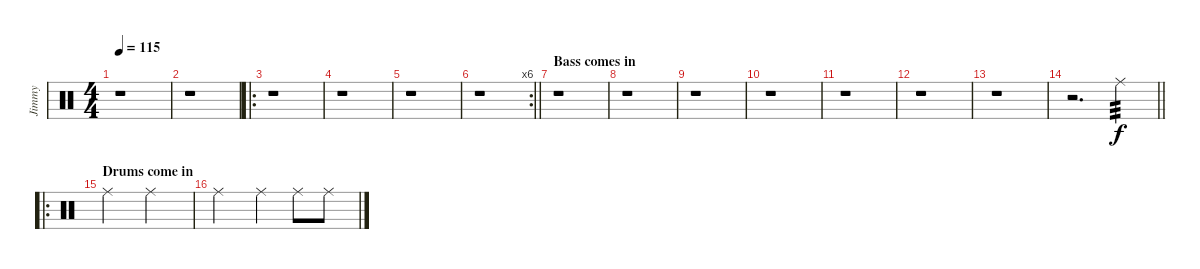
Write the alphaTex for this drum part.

\track ("Jimmy" "Jimmy") {instrument percussion}
\staff {score}
\articulation defaults
\ts (4 4)
\tempo 115
\clef neutral
\ks c
r.1{dy f} |
r.1 |
\ro
r.1 |
r.1 |
r.1 |
\rc 6
\barLineRight lightlight
r.1 |
\section ("" "Bass comes in")
r.1 |
r.1 |
r.1 |
r.1 |
r.1 |
r.1 |
r.1 |
\barLineRight lightlight
r.2{d} "Ride (middle)".4{tp 3} |
\ro
\section ("" "Drums come in")
"Ride (middle)".2 "Ride (middle)".2 |
"Ride (middle)".2 "Ride (middle)".4 "Ride (middle)".8 "Ride (middle)".8
